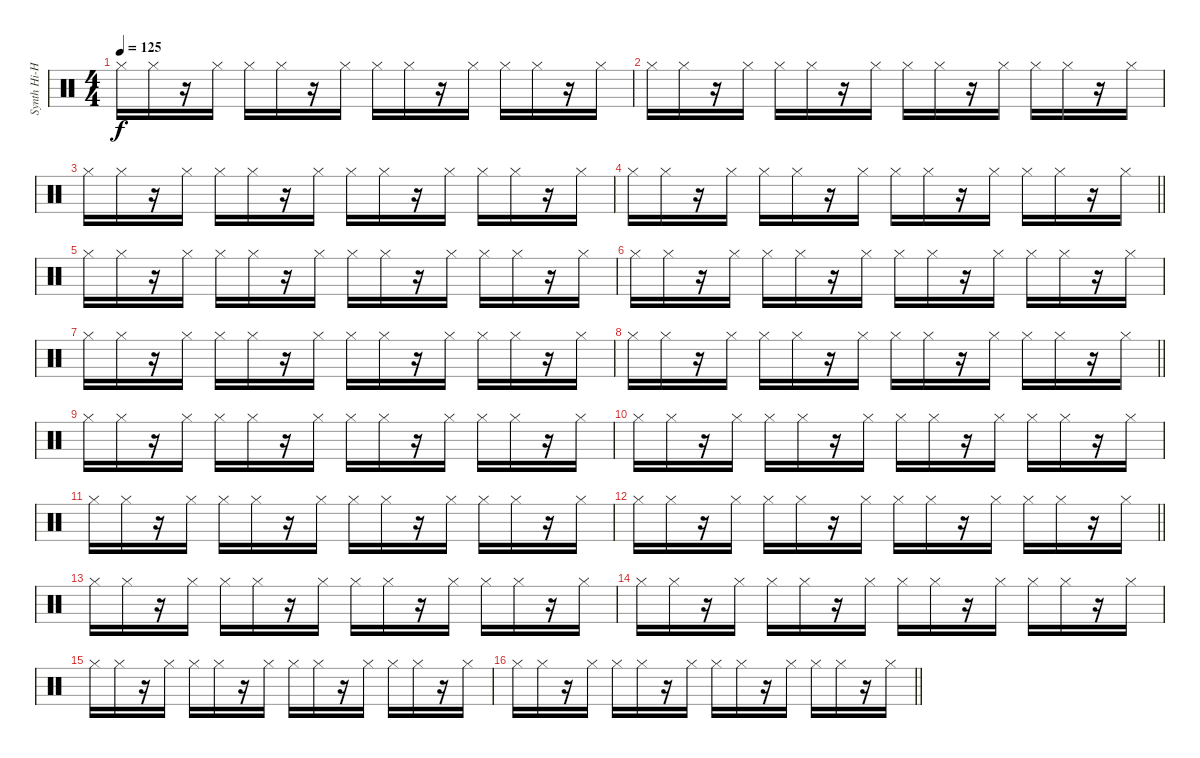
\track ("Synth Hi-Hat (Gillian Gilbert)" "Synth Hi-H") {instrument percussion}
\staff {score}
\articulation defaults
\ts (4 4)
\tempo 125
\clef neutral
\ks c "Hi-Hat (closed)".16{dy f} "Hi-Hat (closed)".16
r.16 "Hi-Hat (closed)".16 "Hi-Hat (closed)".16 "Hi-Hat (closed)".16 r.16 "Hi-Hat (closed)".16 "Hi-Hat (closed)".16 "Hi-Hat (closed)".16 r.16 "Hi-Hat (closed)".16 "Hi-Hat (closed)".16 "Hi-Hat (closed)".16 r.16 "Hi-Hat (closed)".16 |
"Hi-Hat (closed)".16 "Hi-Hat (closed)".16 r.16 "Hi-Hat (closed)".16 "Hi-Hat (closed)".16 "Hi-Hat (closed)".16 r.16 "Hi-Hat (closed)".16 "Hi-Hat (closed)".16 "Hi-Hat (closed)".16 r.16 "Hi-Hat (closed)".16 "Hi-Hat (closed)".16 "Hi-Hat (closed)".16 r.16 "Hi-Hat (closed)".16 |
"Hi-Hat (closed)".16 "Hi-Hat (closed)".16 r.16 "Hi-Hat (closed)".16 "Hi-Hat (closed)".16 "Hi-Hat (closed)".16 r.16 "Hi-Hat (closed)".16 "Hi-Hat (closed)".16 "Hi-Hat (closed)".16 r.16 "Hi-Hat (closed)".16 "Hi-Hat (closed)".16 "Hi-Hat (closed)".16 r.16 "Hi-Hat (closed)".16 |
\barLineRight lightlight "Hi-Hat (closed)".16 "Hi-Hat (closed)".16
r.16 "Hi-Hat (closed)".16 "Hi-Hat (closed)".16 "Hi-Hat (closed)".16 r.16 "Hi-Hat (closed)".16 "Hi-Hat (closed)".16 "Hi-Hat (closed)".16 r.16 "Hi-Hat (closed)".16 "Hi-Hat (closed)".16 "Hi-Hat (closed)".16 r.16 "Hi-Hat (closed)".16 |
"Hi-Hat (closed)".16 "Hi-Hat (closed)".16 r.16 "Hi-Hat (closed)".16 "Hi-Hat (closed)".16 "Hi-Hat (closed)".16 r.16 "Hi-Hat (closed)".16 "Hi-Hat (closed)".16 "Hi-Hat (closed)".16 r.16 "Hi-Hat (closed)".16 "Hi-Hat (closed)".16 "Hi-Hat (closed)".16 r.16 "Hi-Hat (closed)".16 |
"Hi-Hat (closed)".16 "Hi-Hat (closed)".16 r.16 "Hi-Hat (closed)".16 "Hi-Hat (closed)".16 "Hi-Hat (closed)".16 r.16 "Hi-Hat (closed)".16 "Hi-Hat (closed)".16 "Hi-Hat (closed)".16 r.16 "Hi-Hat (closed)".16 "Hi-Hat (closed)".16 "Hi-Hat (closed)".16 r.16 "Hi-Hat (closed)".16 |
"Hi-Hat (closed)".16 "Hi-Hat (closed)".16 r.16 "Hi-Hat (closed)".16 "Hi-Hat (closed)".16 "Hi-Hat (closed)".16 r.16 "Hi-Hat (closed)".16 "Hi-Hat (closed)".16 "Hi-Hat (closed)".16 r.16 "Hi-Hat (closed)".16 "Hi-Hat (closed)".16 "Hi-Hat (closed)".16 r.16 "Hi-Hat (closed)".16 |
\barLineRight lightlight "Hi-Hat (closed)".16 "Hi-Hat (closed)".16
r.16 "Hi-Hat (closed)".16 "Hi-Hat (closed)".16 "Hi-Hat (closed)".16 r.16 "Hi-Hat (closed)".16 "Hi-Hat (closed)".16 "Hi-Hat (closed)".16 r.16 "Hi-Hat (closed)".16 "Hi-Hat (closed)".16 "Hi-Hat (closed)".16 r.16 "Hi-Hat (closed)".16 |
"Hi-Hat (closed)".16 "Hi-Hat (closed)".16 r.16 "Hi-Hat (closed)".16 "Hi-Hat (closed)".16 "Hi-Hat (closed)".16 r.16 "Hi-Hat (closed)".16 "Hi-Hat (closed)".16 "Hi-Hat (closed)".16 r.16 "Hi-Hat (closed)".16 "Hi-Hat (closed)".16 "Hi-Hat (closed)".16 r.16 "Hi-Hat (closed)".16 |
"Hi-Hat (closed)".16 "Hi-Hat (closed)".16 r.16 "Hi-Hat (closed)".16 "Hi-Hat (closed)".16 "Hi-Hat (closed)".16 r.16 "Hi-Hat (closed)".16 "Hi-Hat (closed)".16 "Hi-Hat (closed)".16 r.16 "Hi-Hat (closed)".16 "Hi-Hat (closed)".16 "Hi-Hat (closed)".16 r.16 "Hi-Hat (closed)".16 |
"Hi-Hat (closed)".16 "Hi-Hat (closed)".16 r.16 "Hi-Hat (closed)".16 "Hi-Hat (closed)".16 "Hi-Hat (closed)".16 r.16 "Hi-Hat (closed)".16 "Hi-Hat (closed)".16 "Hi-Hat (closed)".16 r.16 "Hi-Hat (closed)".16 "Hi-Hat (closed)".16 "Hi-Hat (closed)".16 r.16 "Hi-Hat (closed)".16 |
\barLineRight lightlight "Hi-Hat (closed)".16 "Hi-Hat (closed)".16
r.16 "Hi-Hat (closed)".16 "Hi-Hat (closed)".16 "Hi-Hat (closed)".16 r.16 "Hi-Hat (closed)".16 "Hi-Hat (closed)".16 "Hi-Hat (closed)".16 r.16 "Hi-Hat (closed)".16 "Hi-Hat (closed)".16 "Hi-Hat (closed)".16 r.16 "Hi-Hat (closed)".16 |
"Hi-Hat (closed)".16 "Hi-Hat (closed)".16 r.16 "Hi-Hat (closed)".16 "Hi-Hat (closed)".16 "Hi-Hat (closed)".16 r.16 "Hi-Hat (closed)".16 "Hi-Hat (closed)".16 "Hi-Hat (closed)".16 r.16 "Hi-Hat (closed)".16 "Hi-Hat (closed)".16 "Hi-Hat (closed)".16 r.16 "Hi-Hat (closed)".16 |
"Hi-Hat (closed)".16 "Hi-Hat (closed)".16 r.16 "Hi-Hat (closed)".16 "Hi-Hat (closed)".16 "Hi-Hat (closed)".16 r.16 "Hi-Hat (closed)".16 "Hi-Hat (closed)".16 "Hi-Hat (closed)".16 r.16 "Hi-Hat (closed)".16 "Hi-Hat (closed)".16 "Hi-Hat (closed)".16 r.16 "Hi-Hat (closed)".16 |
"Hi-Hat (closed)".16 "Hi-Hat (closed)".16 r.16 "Hi-Hat (closed)".16 "Hi-Hat (closed)".16 "Hi-Hat (closed)".16 r.16 "Hi-Hat (closed)".16 "Hi-Hat (closed)".16 "Hi-Hat (closed)".16 r.16 "Hi-Hat (closed)".16 "Hi-Hat (closed)".16 "Hi-Hat (closed)".16 r.16 "Hi-Hat (closed)".16 |
\barLineRight lightlight "Hi-Hat (closed)".16 "Hi-Hat (closed)".16
r.16 "Hi-Hat (closed)".16 "Hi-Hat (closed)".16 "Hi-Hat (closed)".16 r.16 "Hi-Hat (closed)".16 "Hi-Hat (closed)".16 "Hi-Hat (closed)".16 r.16 "Hi-Hat (closed)".16 "Hi-Hat (closed)".16 "Hi-Hat (closed)".16 r.16 "Hi-Hat (closed)".16
